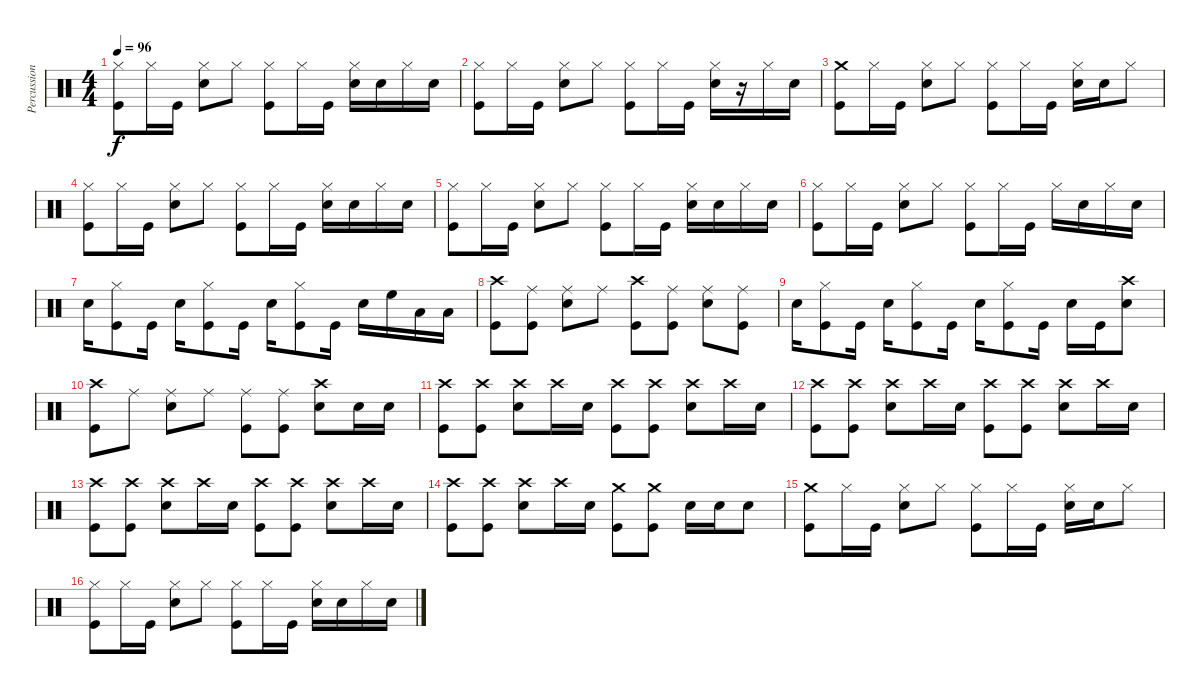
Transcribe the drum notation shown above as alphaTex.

\track ("Percussions" "Percussion") {instrument percussion}
\staff {score}
\articulation defaults
\ts (4 4)
\tempo 96
\clef neutral
\ks c
("Hi-Hat (closed)" "Kick (hit)").8{dy f} "Hi-Hat (closed)".16 "Kick (hit)".16 ("Hi-Hat (closed)" "Snare (hit) 2").8 "Hi-Hat (closed)".8 ("Hi-Hat (closed)" "Kick (hit)").8 "Hi-Hat (closed)".16 "Kick (hit)".16 ("Hi-Hat (closed)" "Snare (hit) 2").16 "Snare (hit) 2".16 "Hi-Hat (closed)".16 "Snare (hit) 2".16 |
("Hi-Hat (closed)" "Kick (hit)").8 "Hi-Hat (closed)".16 "Kick (hit)".16 ("Hi-Hat (closed)" "Snare (hit) 2").8 "Hi-Hat (closed)".8 ("Hi-Hat (closed)" "Kick (hit)").8 "Hi-Hat (closed)".16 "Kick (hit)".16 ("Hi-Hat (closed)" "Snare (hit) 2").16 r.16 "Hi-Hat (closed)".16 "Snare (hit) 2".16 |
("Crash medium (hit)" "Kick (hit)").8 "Hi-Hat (closed)".16 "Kick (hit)".16 ("Hi-Hat (closed)" "Snare (hit) 2").8 "Hi-Hat (closed)".8 ("Hi-Hat (closed)" "Kick (hit)").8 "Hi-Hat (closed)".16 "Kick (hit)".16 ("Hi-Hat (closed)" "Snare (hit) 2").16 "Snare (hit) 2".16 "Hi-Hat (closed)".8 |
("Hi-Hat (closed)" "Kick (hit)").8 "Hi-Hat (closed)".16 "Kick (hit)".16 ("Hi-Hat (closed)" "Snare (hit) 2").8 "Hi-Hat (closed)".8 ("Hi-Hat (closed)" "Kick (hit)").8 "Hi-Hat (closed)".16 "Kick (hit)".16 ("Hi-Hat (closed)" "Snare (hit) 2").16 "Snare (hit) 2".16 "Hi-Hat (closed)".16 "Snare (hit) 2".16 |
("Hi-Hat (closed)" "Kick (hit)").8 "Hi-Hat (closed)".16 "Kick (hit)".16 ("Hi-Hat (closed)" "Snare (hit) 2").8 "Hi-Hat (closed)".8 ("Hi-Hat (closed)" "Kick (hit)").8 "Hi-Hat (closed)".16 "Kick (hit)".16 ("Hi-Hat (closed)" "Snare (hit) 2").16 "Snare (hit) 2".16 "Hi-Hat (closed)".16 "Snare (hit) 2".16 |
("Hi-Hat (closed)" "Kick (hit)").8 "Hi-Hat (closed)".16 "Kick (hit)".16 ("Hi-Hat (closed)" "Snare (hit) 2").8 "Hi-Hat (closed)".8 ("Hi-Hat (closed)" "Kick (hit)").8 "Hi-Hat (closed)".16 "Kick (hit)".16 "Hi-Hat (closed)".16 "Snare (hit) 2".16 "Hi-Hat (closed)".16 "Snare (hit) 2".16 |
"Snare (hit) 2".16 ("Hi-Hat (closed)" "Kick (hit)").8 "Kick (hit)".16 "Snare (hit) 2".16 ("Hi-Hat (closed)" "Kick (hit)").8 "Kick (hit)".16 "Snare (hit) 2".16 ("Hi-Hat (closed)" "Kick (hit)").8 "Kick (hit)".16 "Snare (hit) 2".16 "High Floor Tom (hit)".16 "Low Tom (hit)".16 "Low Floor Tom (hit)".16 |
("Crash high (hit)" "Kick (hit)").8 ("Ride (middle)" "Kick (hit)").8 ("Ride (middle)" "Snare (hit) 2").8 "Ride (middle)".8 ("Crash high (hit)" "Kick (hit)").8 ("Ride (middle)" "Kick (hit)").8 ("Ride (middle)" "Snare (hit) 2").8 ("Ride (middle)" "Kick (hit)").8 |
"Snare (hit) 2".16 ("Hi-Hat (closed)" "Kick (hit)").8 "Kick (hit)".16 "Snare (hit) 2".16 ("Hi-Hat (closed)" "Kick (hit)").8 "Kick (hit)".16 "Snare (hit) 2".16 ("Hi-Hat (closed)" "Kick (hit)").8 "Kick (hit)".16 "Snare (hit) 2".16 "Kick (hit)".16 ("Crash high (hit)" "Snare (hit) 2").8 |
("Crash high (hit)" "Kick (hit)").8 "Ride (middle)".8 ("Ride (middle)" "Snare (hit) 2").8 "Ride (middle)".8 ("Ride (middle)" "Kick (hit)").8 ("Ride (middle)" "Kick (hit)").8 ("Crash high (hit)" "Snare (hit) 2").8 "Snare (hit) 2".16 "Snare (hit) 2".16 |
("Crash high (hit)" "Kick (hit)").8 ("Crash high (hit)" "Kick (hit)").8 ("Crash high (hit)" "Snare (hit) 2").8 "Crash high (hit)".16 "Snare (hit) 2".16 ("Crash high (hit)" "Kick (hit)").8 ("Crash high (hit)" "Kick (hit)").8 ("Crash high (hit)" "Snare (hit) 2").8 "Crash high (hit)".16 "Snare (hit) 2".16 |
("Crash high (hit)" "Kick (hit)").8 ("Crash high (hit)" "Kick (hit)").8 ("Crash high (hit)" "Snare (hit) 2").8 "Crash high (hit)".16 "Snare (hit) 2".16 ("Crash high (hit)" "Kick (hit)").8 ("Crash high (hit)" "Kick (hit)").8 ("Crash high (hit)" "Snare (hit) 2").8 "Crash high (hit)".16 "Snare (hit) 2".16 |
("Crash high (hit)" "Kick (hit)").8 ("Crash high (hit)" "Kick (hit)").8 ("Crash high (hit)" "Snare (hit) 2").8 "Crash high (hit)".16 "Snare (hit) 2".16 ("Crash high (hit)" "Kick (hit)").8 ("Crash high (hit)" "Kick (hit)").8 ("Crash high (hit)" "Snare (hit) 2").8 "Crash high (hit)".16 "Snare (hit) 2".16 |
("Crash high (hit)" "Kick (hit)").8 ("Crash high (hit)" "Kick (hit)").8 ("Crash high (hit)" "Snare (hit) 2").8 "Crash high (hit)".16 "Snare (hit) 2".16 ("Crash medium (hit)" "Kick (hit)").8 ("Crash medium (hit)" "Kick (hit)").8 "Snare (hit) 2".16 "Snare (hit) 2".16 "Snare (hit) 2".8 |
("Crash medium (hit)" "Kick (hit)").8 "Hi-Hat (closed)".16 "Kick (hit)".16 ("Hi-Hat (closed)" "Snare (hit) 2").8 "Hi-Hat (closed)".8 ("Hi-Hat (closed)" "Kick (hit)").8 "Hi-Hat (closed)".16 "Kick (hit)".16 ("Hi-Hat (closed)" "Snare (hit) 2").16 "Snare (hit) 2".16 "Hi-Hat (closed)".8 |
("Hi-Hat (closed)" "Kick (hit)").8 "Hi-Hat (closed)".16 "Kick (hit)".16 ("Hi-Hat (closed)" "Snare (hit) 2").8 "Hi-Hat (closed)".8 ("Hi-Hat (closed)" "Kick (hit)").8 "Hi-Hat (closed)".16 "Kick (hit)".16 ("Hi-Hat (closed)" "Snare (hit) 2").16 "Snare (hit) 2".16 "Hi-Hat (closed)".16 "Snare (hit) 2".16
